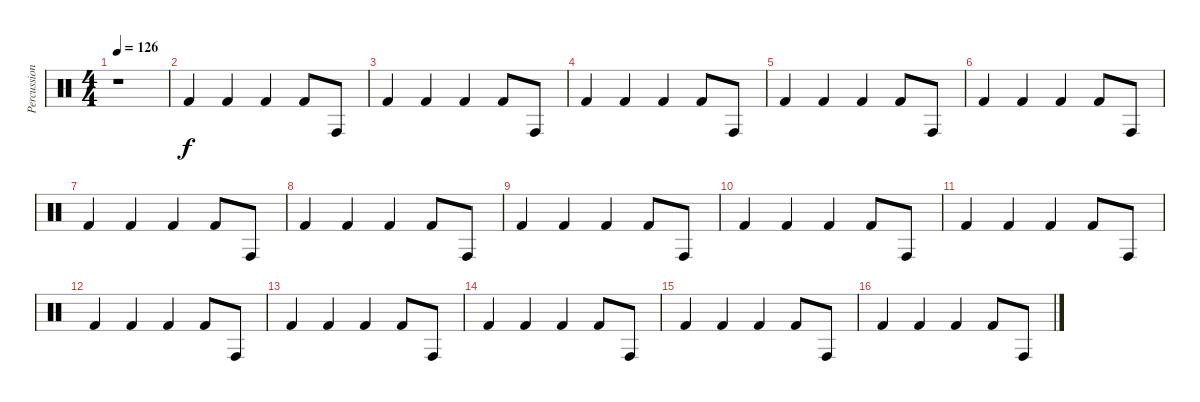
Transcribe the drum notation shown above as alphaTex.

\track ("Percussions" "Percussion") {instrument percussion}
\staff {score}
\articulation defaults
\ts (4 4)
\tempo 126
\clef neutral
\ks c
r.1{dy f} |
"Kick (hit) 2".4 "Kick (hit) 2".4 "Kick (hit) 2".4 "Kick (hit) 2".8 "Conga high (hit)".8 |
"Kick (hit) 2".4 "Kick (hit) 2".4 "Kick (hit) 2".4 "Kick (hit) 2".8 "Conga high (hit)".8 |
"Kick (hit) 2".4 "Kick (hit) 2".4 "Kick (hit) 2".4 "Kick (hit) 2".8 "Conga high (hit)".8 |
"Kick (hit) 2".4 "Kick (hit) 2".4 "Kick (hit) 2".4 "Kick (hit) 2".8 "Conga high (hit)".8 |
"Kick (hit) 2".4 "Kick (hit) 2".4 "Kick (hit) 2".4 "Kick (hit) 2".8 "Conga high (hit)".8 |
"Kick (hit) 2".4 "Kick (hit) 2".4 "Kick (hit) 2".4 "Kick (hit) 2".8 "Conga high (hit)".8 |
"Kick (hit) 2".4 "Kick (hit) 2".4 "Kick (hit) 2".4 "Kick (hit) 2".8 "Conga high (hit)".8 |
"Kick (hit) 2".4 "Kick (hit) 2".4 "Kick (hit) 2".4 "Kick (hit) 2".8 "Conga high (hit)".8 |
"Kick (hit) 2".4 "Kick (hit) 2".4 "Kick (hit) 2".4 "Kick (hit) 2".8 "Conga high (hit)".8 |
"Kick (hit) 2".4 "Kick (hit) 2".4 "Kick (hit) 2".4 "Kick (hit) 2".8 "Conga high (hit)".8 |
"Kick (hit) 2".4 "Kick (hit) 2".4 "Kick (hit) 2".4 "Kick (hit) 2".8 "Conga high (hit)".8 |
"Kick (hit) 2".4 "Kick (hit) 2".4 "Kick (hit) 2".4 "Kick (hit) 2".8 "Conga high (hit)".8 |
"Kick (hit) 2".4 "Kick (hit) 2".4 "Kick (hit) 2".4 "Kick (hit) 2".8 "Conga high (hit)".8 |
"Kick (hit) 2".4 "Kick (hit) 2".4 "Kick (hit) 2".4 "Kick (hit) 2".8 "Conga high (hit)".8 |
"Kick (hit) 2".4 "Kick (hit) 2".4 "Kick (hit) 2".4 "Kick (hit) 2".8 "Conga high (hit)".8
